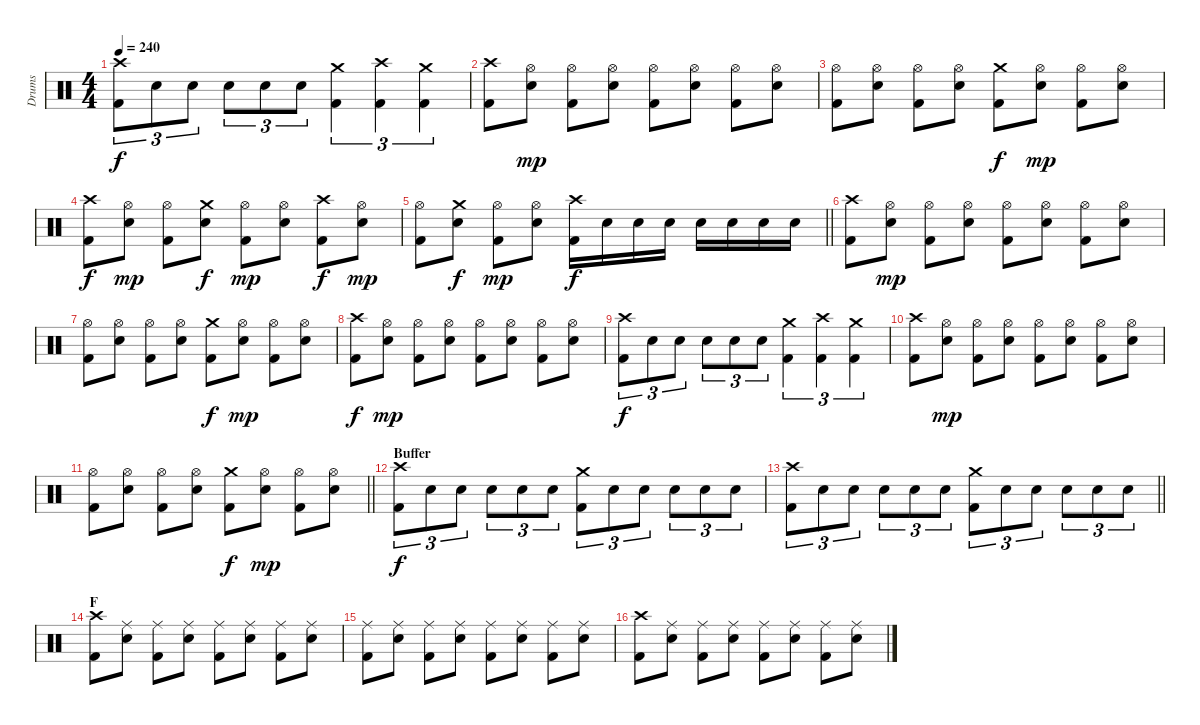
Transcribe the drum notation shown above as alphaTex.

\track ("Drums" "Drums") {instrument percussion}
\staff {score}
\articulation defaults
\ts (4 4)
\tempo 240
\clef neutral
\ks c
("Crash high (hit)" "Kick (hit) 2").8{tu (3 2) dy f} "Snare (hit) 2".8{tu (3 2)} "Snare (hit) 2".8{tu (3 2)} "Snare (hit) 2".8{tu (3 2)} "Snare (hit) 2".8{tu (3 2)} "Snare (hit) 2".8{tu (3 2)} ("Crash medium (hit)" "Kick (hit) 2").4{tu (3 2)} ("Crash high (hit)" "Kick (hit) 2").4{tu (3 2)} ("Crash medium (hit)" "Kick (hit) 2").4{tu (3 2)} |
("Crash high (hit)" "Kick (hit) 2").8 ("Hi-Hat (open)" "Snare (hit) 2").8{dy mp} ("Hi-Hat (open)" "Kick (hit) 2").8 ("Hi-Hat (open)" "Snare (hit) 2").8 ("Hi-Hat (open)" "Kick (hit) 2").8 ("Hi-Hat (open)" "Snare (hit) 2").8 ("Hi-Hat (open)" "Kick (hit) 2").8 ("Hi-Hat (open)" "Snare (hit) 2").8 |
("Hi-Hat (open)" "Kick (hit) 2").8 ("Hi-Hat (open)" "Snare (hit) 2").8 ("Hi-Hat (open)" "Kick (hit) 2").8 ("Hi-Hat (open)" "Snare (hit) 2").8 ("Crash medium (hit)" "Kick (hit) 2").8{dy f} ("Hi-Hat (open)" "Snare (hit) 2").8{dy mp} ("Hi-Hat (open)" "Kick (hit) 2").8 ("Hi-Hat (open)" "Snare (hit) 2").8 |
("Crash high (hit)" "Kick (hit) 2").8{dy f} ("Hi-Hat (open)" "Snare (hit) 2").8{dy mp} ("Hi-Hat (open)" "Kick (hit) 2").8 ("Crash medium (hit)" "Snare (hit) 2").8{dy f} ("Hi-Hat (open)" "Kick (hit) 2").8{dy mp} ("Hi-Hat (open)" "Snare (hit) 2").8 ("Crash high (hit)" "Kick (hit) 2").8{dy f} ("Hi-Hat (open)" "Snare (hit) 2").8{dy mp} |
\barLineRight lightlight
("Hi-Hat (open)" "Kick (hit) 2").8 ("Crash medium (hit)" "Snare (hit) 2").8{dy f} ("Hi-Hat (open)" "Kick (hit) 2").8{dy mp} ("Hi-Hat (open)" "Snare (hit) 2").8 ("Crash high (hit)" "Kick (hit) 2").16{dy f} "Snare (hit) 2".16 "Snare (hit) 2".16 "Snare (hit) 2".16 "Snare (hit) 2".16 "Snare (hit) 2".16 "Snare (hit) 2".16 "Snare (hit) 2".16 |
("Crash high (hit)" "Kick (hit) 2").8 ("Hi-Hat (open)" "Snare (hit) 2").8{dy mp} ("Hi-Hat (open)" "Kick (hit) 2").8 ("Hi-Hat (open)" "Snare (hit) 2").8 ("Hi-Hat (open)" "Kick (hit) 2").8 ("Hi-Hat (open)" "Snare (hit) 2").8 ("Hi-Hat (open)" "Kick (hit) 2").8 ("Hi-Hat (open)" "Snare (hit) 2").8 |
("Hi-Hat (open)" "Kick (hit) 2").8 ("Hi-Hat (open)" "Snare (hit) 2").8 ("Hi-Hat (open)" "Kick (hit) 2").8 ("Hi-Hat (open)" "Snare (hit) 2").8 ("Crash medium (hit)" "Kick (hit) 2").8{dy f} ("Hi-Hat (open)" "Snare (hit) 2").8{dy mp} ("Hi-Hat (open)" "Kick (hit) 2").8 ("Hi-Hat (open)" "Snare (hit) 2").8 |
("Crash high (hit)" "Kick (hit) 2").8{dy f} ("Hi-Hat (open)" "Snare (hit) 2").8{dy mp} ("Hi-Hat (open)" "Kick (hit) 2").8 ("Hi-Hat (open)" "Snare (hit) 2").8 ("Hi-Hat (open)" "Kick (hit) 2").8 ("Hi-Hat (open)" "Snare (hit) 2").8 ("Hi-Hat (open)" "Kick (hit) 2").8 ("Hi-Hat (open)" "Snare (hit) 2").8 |
("Crash high (hit)" "Kick (hit) 2").8{tu (3 2) dy f} "Snare (hit) 2".8{tu (3 2)} "Snare (hit) 2".8{tu (3 2)} "Snare (hit) 2".8{tu (3 2)} "Snare (hit) 2".8{tu (3 2)} "Snare (hit) 2".8{tu (3 2)} ("Crash medium (hit)" "Kick (hit) 2").4{tu (3 2)} ("Crash high (hit)" "Kick (hit) 2").4{tu (3 2)} ("Crash medium (hit)" "Kick (hit) 2").4{tu (3 2)} |
("Crash high (hit)" "Kick (hit) 2").8 ("Hi-Hat (open)" "Snare (hit) 2").8{dy mp} ("Hi-Hat (open)" "Kick (hit) 2").8 ("Hi-Hat (open)" "Snare (hit) 2").8 ("Hi-Hat (open)" "Kick (hit) 2").8 ("Hi-Hat (open)" "Snare (hit) 2").8 ("Hi-Hat (open)" "Kick (hit) 2").8 ("Hi-Hat (open)" "Snare (hit) 2").8 |
\barLineRight lightlight
("Hi-Hat (open)" "Kick (hit) 2").8 ("Hi-Hat (open)" "Snare (hit) 2").8 ("Hi-Hat (open)" "Kick (hit) 2").8 ("Hi-Hat (open)" "Snare (hit) 2").8 ("Crash medium (hit)" "Kick (hit) 2").8{dy f} ("Hi-Hat (open)" "Snare (hit) 2").8{dy mp} ("Hi-Hat (open)" "Kick (hit) 2").8 ("Hi-Hat (open)" "Snare (hit) 2").8 |
\section ("" "Buffer")
("Crash high (hit)" "Kick (hit) 2").8{tu (3 2) dy f} "Snare (hit) 2".8{tu (3 2)} "Snare (hit) 2".8{tu (3 2)} "Snare (hit) 2".8{tu (3 2)} "Snare (hit) 2".8{tu (3 2)} "Snare (hit) 2".8{tu (3 2)} ("Crash medium (hit)" "Kick (hit) 2").8{tu (3 2)} "Snare (hit) 2".8{tu (3 2)} "Snare (hit) 2".8{tu (3 2)} "Snare (hit) 2".8{tu (3 2)} "Snare (hit) 2".8{tu (3 2)} "Snare (hit) 2".8{tu (3 2)} |
\barLineRight lightlight
("Crash high (hit)" "Kick (hit) 2").8{tu (3 2)} "Snare (hit) 2".8{tu (3 2)} "Snare (hit) 2".8{tu (3 2)} "Snare (hit) 2".8{tu (3 2)} "Snare (hit) 2".8{tu (3 2)} "Snare (hit) 2".8{tu (3 2)} ("Crash medium (hit)" "Kick (hit) 2").8{tu (3 2)} "Snare (hit) 2".8{tu (3 2)} "Snare (hit) 2".8{tu (3 2)} "Snare (hit) 2".8{tu (3 2)} "Snare (hit) 2".8{tu (3 2)} "Snare (hit) 2".8{tu (3 2)} |
\section ("" "F")
("Crash high (hit)" "Kick (hit) 2").8 ("Ride (middle)" "Snare (hit) 2").8 ("Ride (middle)" "Kick (hit) 2").8 ("Ride (middle)" "Snare (hit) 2").8 ("Ride (middle)" "Kick (hit) 2").8 ("Ride (middle)" "Snare (hit) 2").8 ("Ride (middle)" "Kick (hit) 2").8 ("Ride (middle)" "Snare (hit) 2").8 |
("Ride (middle)" "Kick (hit) 2").8 ("Ride (middle)" "Snare (hit) 2").8 ("Ride (middle)" "Kick (hit) 2").8 ("Ride (middle)" "Snare (hit) 2").8 ("Ride (middle)" "Kick (hit) 2").8 ("Ride (middle)" "Snare (hit) 2").8 ("Ride (middle)" "Kick (hit) 2").8 ("Ride (middle)" "Snare (hit) 2").8 |
("Crash high (hit)" "Kick (hit) 2").8 ("Ride (middle)" "Snare (hit) 2").8 ("Ride (middle)" "Kick (hit) 2").8 ("Ride (middle)" "Snare (hit) 2").8 ("Ride (middle)" "Kick (hit) 2").8 ("Ride (middle)" "Snare (hit) 2").8 ("Ride (middle)" "Kick (hit) 2").8 ("Ride (middle)" "Snare (hit) 2").8
